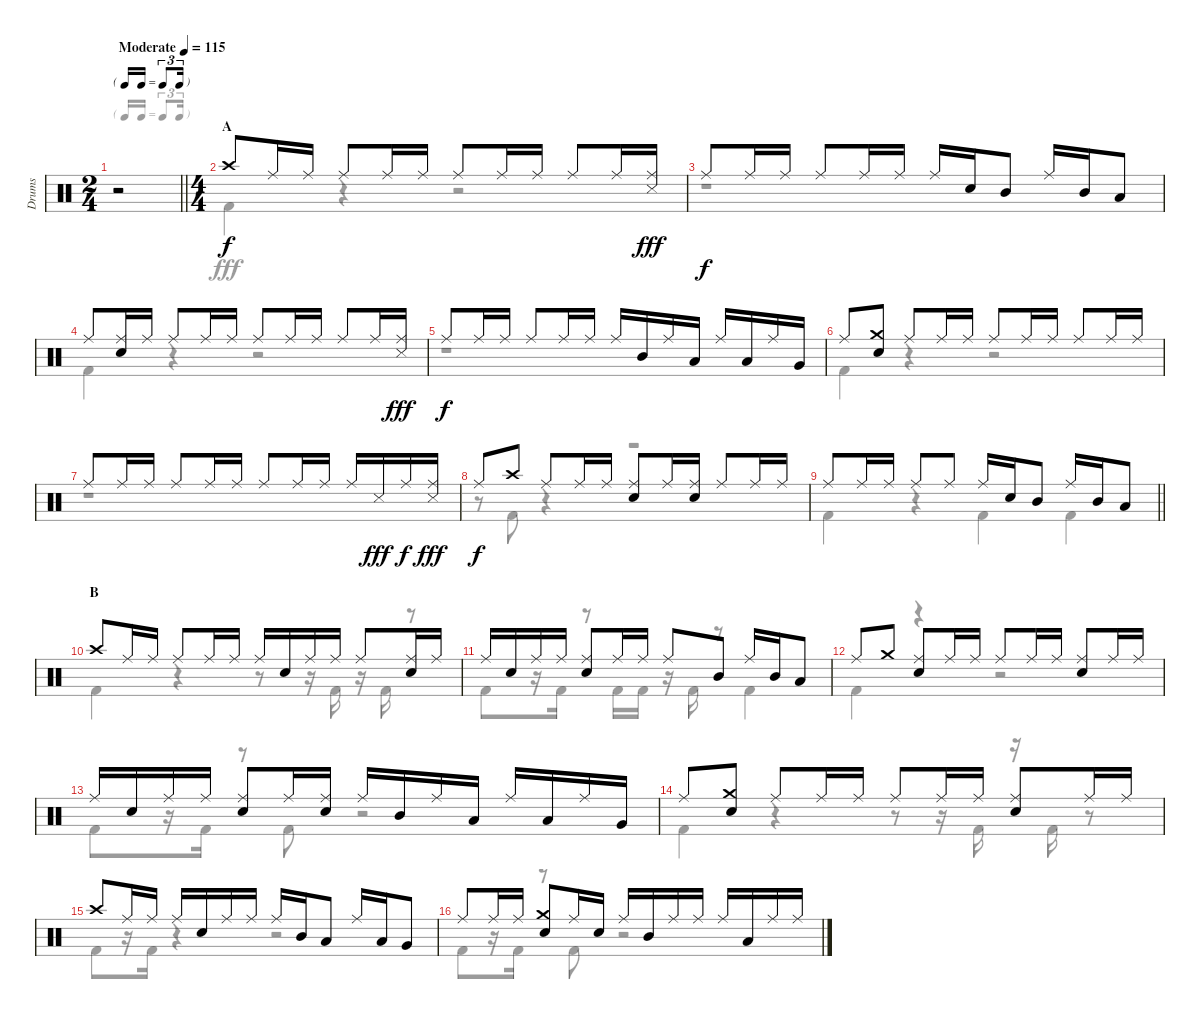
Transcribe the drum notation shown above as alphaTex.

\track ("Drums" "Drums") {instrument percussion}
\staff {score}
\articulation defaults
\voice
\ts (2 4)
\tf triplet16th
\tempo (115 "Moderate")
\clef neutral
\barLineRight lightlight
\ks c
r.2{dy f} |
\ts (4 4)
\section ("" "A")
"Crash high (hit)".8 "Ride (middle)".16 "Ride (middle)".16 "Ride (middle)".8 "Ride (middle)".16 "Ride (middle)".16 "Ride (middle)".8 "Ride (middle)".16 "Ride (middle)".16 "Ride (middle)".8 "Ride (middle)".16 ("Ride (middle)" "Snare (side stick) 3").16{dy fff} |
"Ride (middle)".8{dy f} "Ride (middle)".16 "Ride (middle)".16 "Ride (middle)".8 "Ride (middle)".16 "Ride (middle)".16 "Ride (middle)".16 "Snare (hit) 2".16 "Mid Tom (hit)".8 "Ride (middle)".16 "Mid Tom (hit)".16 "Low Tom (hit)".8 |
"Ride (middle)".8 ("Ride (middle)" "Snare (hit) 2").16 "Ride (middle)".16 "Ride (middle)".8 "Ride (middle)".16 "Ride (middle)".16 "Ride (middle)".8 "Ride (middle)".16 "Ride (middle)".16 "Ride (middle)".8 "Ride (middle)".16 ("Ride (middle)" "Snare (side stick) 3").16{dy fff} |
"Ride (middle)".8{dy f} "Ride (middle)".16 "Ride (middle)".16 "Ride (middle)".8 "Ride (middle)".16 "Ride (middle)".16 "Ride (middle)".16 "Mid Tom (hit)".16 "Ride (middle)".16 "Low Tom (hit)".16 "Ride (middle)".16 "Low Tom (hit)".16 "Ride (middle)".16 "Very Low Tom (hit)".16 |
"Ride (middle)".8 ("Crash medium (hit)" "Snare (hit) 2").8 "Ride (middle)".8 "Ride (middle)".16 "Ride (middle)".16 "Ride (middle)".8 "Ride (middle)".16 "Ride (middle)".16 "Ride (middle)".8 "Ride (middle)".16 "Ride (middle)".16 |
"Ride (middle)".8 "Ride (middle)".16 "Ride (middle)".16 "Ride (middle)".8 "Ride (middle)".16 "Ride (middle)".16 "Ride (middle)".8 "Ride (middle)".16 "Ride (middle)".16 "Ride (middle)".16 "Snare (side stick) 3".16{dy fff} "Ride (middle)".16{dy f} ("Ride (middle)" "Snare (side stick) 3").16{dy fff} |
"Ride (middle)".8{dy f} "Crash high (hit)".8 "Ride (middle)".8 "Ride (middle)".16 "Ride (middle)".16 ("Ride (middle)" "Snare (hit) 2").8 "Ride (middle)".16 ("Ride (middle)" "Snare (hit) 2").16 "Ride (middle)".8 "Ride (middle)".16 "Ride (middle)".16 |
\barLineRight lightlight "Ride (middle)".8 "Ride (middle)".16 "Ride (middle)".16 "Ride (middle)".8 "Ride (middle)".8 "Ride (middle)".16 "Snare (hit) 2".16 "Mid Tom (hit)".8 "Ride (middle)".16 "Mid Tom (hit)".16 "Low Tom (hit)".8
|
\section ("" "B")
"Crash high (hit)".8 "Ride (middle)".16 "Ride (middle)".16 "Ride (middle)".8 "Ride (middle)".16 "Ride (middle)".16 "Ride (middle)".16 "Snare (hit) 2".16 "Ride (middle)".16 "Ride (middle)".16 "Ride (middle)".8 ("Ride (middle)" "Snare (hit) 2").16 "Ride (middle)".16 |
"Ride (middle)".16 "Snare (hit) 2".16 "Ride (middle)".16 "Ride (middle)".16 ("Ride (middle)" "Snare (hit) 2").8 "Ride (middle)".16 "Ride (middle)".16 "Ride (middle)".8 "Mid Tom (hit)".8 "Ride (middle)".16 "Mid Tom (hit)".16 "Low Tom (hit)".8 |
"Ride (middle)".8 "Crash medium (hit)".8 ("Ride (middle)" "Snare (hit) 2").8 "Ride (middle)".16 "Ride (middle)".16 "Ride (middle)".8 "Ride (middle)".16 "Ride (middle)".16 ("Ride (middle)" "Snare (hit) 2").8 "Ride (middle)".16 "Ride (middle)".16 |
"Ride (middle)".16 "Snare (hit) 2".16 "Ride (middle)".16 "Ride (middle)".16 ("Ride (middle)" "Snare (hit) 2").8 "Ride (middle)".16 ("Ride (middle)" "Snare (hit) 2").16 "Ride (middle)".16 "Mid Tom (hit)".16 "Ride (middle)".16 "Low Tom (hit)".16 "Ride (middle)".16 "Low Tom (hit)".16 "Ride (middle)".16 "Very Low Tom (hit)".16 |
"Ride (middle)".8 ("Crash medium (hit)" "Snare (hit) 2").8 "Ride (middle)".8 "Ride (middle)".16 "Ride (middle)".16 "Ride (middle)".8 "Ride (middle)".16 "Ride (middle)".16 ("Ride (middle)" "Snare (hit) 2").8 "Ride (middle)".16 "Ride (middle)".16 |
"Crash high (hit)".8 "Ride (middle)".16 "Ride (middle)".16 "Ride (middle)".16 "Snare (hit) 2".16 "Ride (middle)".16 "Ride (middle)".16 "Ride (middle)".16 "Mid Tom (hit)".16 "Low Tom (hit)".8 "Ride (middle)".16 "Low Tom (hit)".16 "Very Low Tom (hit)".8 |
"Ride (middle)".8 "Ride (middle)".16 "Ride (middle)".16 ("Crash medium (hit)" "Snare (hit) 2").8 "Ride (middle)".16 "Snare (hit) 2".16 "Ride (middle)".16 "Mid Tom (hit)".16 "Ride (middle)".16 "Ride (middle)".16 "Ride (middle)".16 "Low Tom (hit)".16 "Ride (middle)".16 "Ride (middle)".16
\voice
\clef neutral
\ottava regular
\simile none
\barLineRight lightlight
\ks c
r.2{dy fff} |
"Kick (hit) 2".4 r.4 r.2 |
r.1 |
"Kick (hit) 2".4 r.4 r.2 |
r.1 |
"Kick (hit) 2".4 r.4 r.2 |
r.1 |
r.8 "Kick (hit) 2".8 r.4 r.2 |
\barLineRight lightlight "Kick (hit) 2".4
r.4 "Kick (hit) 2".4 "Kick (hit) 2".4 |
"Kick (hit) 2".4 r.4 r.8 r.16 "Kick (hit) 2".16 r.16 "Kick (hit) 2".16 r.8 |
"Kick (hit) 2".8 r.16 "Kick (hit) 2".16 r.8 "Kick (hit) 2".16 "Kick (hit) 2".16 r.16 "Kick (hit) 2".16 r.8 "Kick (hit) 2".4 |
"Kick (hit) 2".4 r.4 r.2 |
"Kick (hit) 2".8 r.16 "Kick (hit) 2".16 r.8 "Kick (hit) 2".8 r.2 |
"Kick (hit) 2".4 r.4 r.8 r.16 "Kick (hit) 2".16 r.16 "Kick (hit) 2".16 r.8 |
"Kick (hit) 2".8 r.16 "Kick (hit) 2".16 r.4 r.2 |
"Kick (hit) 2".8 r.16 "Kick (hit) 2".16 r.8 "Kick (hit) 2".8 r.2
